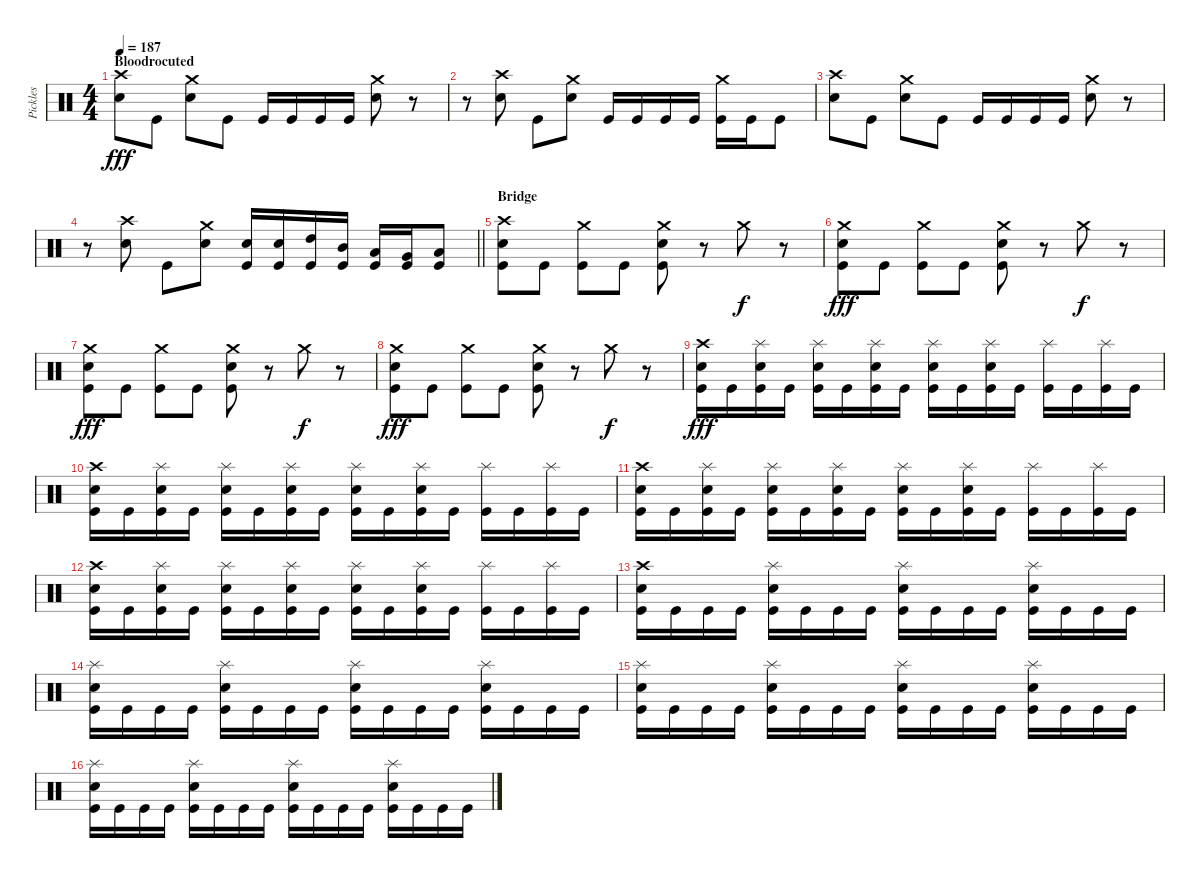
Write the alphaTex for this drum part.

\track ("Pickles" "Pickles") {instrument percussion}
\staff {score}
\articulation defaults
\ts (4 4)
\section ("" "Bloodrocuted")
\tempo 187
\clef neutral
\ks c
("Crash high (hit)" "Snare (hit) 2").8{dy fff} "Kick (hit)".8 ("Crash medium (hit)" "Snare (hit) 2").8 "Kick (hit)".8 "Kick (hit)".16 "Kick (hit)".16 "Kick (hit)".16 "Kick (hit)".16 ("Crash medium (hit)" "Snare (hit) 2").8 r.8 |
r.8 ("Crash high (hit)" "Snare (hit) 2").8 "Kick (hit)".8 ("Crash medium (hit)" "Snare (hit) 2").8 "Kick (hit)".16 "Kick (hit)".16 "Kick (hit)".16 "Kick (hit)".16 ("Crash medium (hit)" "Kick (hit)").16 "Kick (hit)".16 "Kick (hit)".8 |
("Crash high (hit)" "Snare (hit) 2").8 "Kick (hit)".8 ("Crash medium (hit)" "Snare (hit) 2").8 "Kick (hit)".8 "Kick (hit)".16 "Kick (hit)".16 "Kick (hit)".16 "Kick (hit)".16 ("Crash medium (hit)" "Snare (hit) 2").8 r.8 |
\barLineRight lightlight
r.8 ("Crash high (hit)" "Snare (hit) 2").8 "Kick (hit)".8 ("Crash medium (hit)" "Snare (hit) 2").8 ("Snare (hit) 2" "Kick (hit)").16 ("Snare (hit) 2" "Kick (hit)").16 ("High Tom (hit)" "Kick (hit)").16 ("Mid Tom (hit)" "Kick (hit)").16 ("Low Tom (hit)" "Kick (hit)").16 ("Very Low Tom (hit)" "Kick (hit)").16 ("Low Floor Tom (hit)" "Kick (hit)").8 |
\section ("" "Bridge")
("Crash high (hit)" "Snare (hit) 2" "Kick (hit)").8 "Kick (hit)".8 ("Crash medium (hit)" "Kick (hit)").8 "Kick (hit)".8 ("Crash medium (hit)" "Snare (hit) 2" "Kick (hit)").8 r.8 "Crash medium (hit)".8{dy f} r.8 |
("Crash medium (hit)" "Snare (hit) 2" "Kick (hit)").8{dy fff} "Kick (hit)".8 ("Crash medium (hit)" "Kick (hit)").8 "Kick (hit)".8 ("Crash medium (hit)" "Snare (hit) 2" "Kick (hit)").8 r.8 "Crash medium (hit)".8{dy f} r.8 |
("Crash medium (hit)" "Snare (hit) 2" "Kick (hit)").8{dy fff} "Kick (hit)".8 ("Crash medium (hit)" "Kick (hit)").8 "Kick (hit)".8 ("Crash medium (hit)" "Snare (hit) 2" "Kick (hit)").8 r.8 "Crash medium (hit)".8{dy f} r.8 |
("Crash medium (hit)" "Snare (hit) 2" "Kick (hit)").8{dy fff} "Kick (hit)".8 ("Crash medium (hit)" "Kick (hit)").8 "Kick (hit)".8 ("Crash medium (hit)" "Snare (hit) 2" "Kick (hit)").8 r.8 "Crash medium (hit)".8{dy f} r.8 |
("Crash high (hit)" "Snare (hit) 2" "Kick (hit)").16{dy fff} "Kick (hit)".16 ("Splash (hit)" "Snare (hit) 2" "Kick (hit)").16 "Kick (hit)".16 ("Splash (hit)" "Snare (hit) 2" "Kick (hit)").16 "Kick (hit)".16 ("Splash (hit)" "Snare (hit) 2" "Kick (hit)").16 "Kick (hit)".16 ("Splash (hit)" "Snare (hit) 2" "Kick (hit)").16 "Kick (hit)".16 ("Splash (hit)" "Snare (hit) 2" "Kick (hit)").16 "Kick (hit)".16 ("Splash (hit)" "Kick (hit)").16 "Kick (hit)".16 ("Splash (hit)" "Kick (hit)").16 "Kick (hit)".16 |
("Crash high (hit)" "Snare (hit) 2" "Kick (hit)").16 "Kick (hit)".16 ("Splash (hit)" "Snare (hit) 2" "Kick (hit)").16 "Kick (hit)".16 ("Splash (hit)" "Snare (hit) 2" "Kick (hit)").16 "Kick (hit)".16 ("Splash (hit)" "Snare (hit) 2" "Kick (hit)").16 "Kick (hit)".16 ("Splash (hit)" "Snare (hit) 2" "Kick (hit)").16 "Kick (hit)".16 ("Splash (hit)" "Snare (hit) 2" "Kick (hit)").16 "Kick (hit)".16 ("Splash (hit)" "Kick (hit)").16 "Kick (hit)".16 ("Splash (hit)" "Kick (hit)").16 "Kick (hit)".16 |
("Crash high (hit)" "Snare (hit) 2" "Kick (hit)").16 "Kick (hit)".16 ("Splash (hit)" "Snare (hit) 2" "Kick (hit)").16 "Kick (hit)".16 ("Splash (hit)" "Snare (hit) 2" "Kick (hit)").16 "Kick (hit)".16 ("Splash (hit)" "Snare (hit) 2" "Kick (hit)").16 "Kick (hit)".16 ("Splash (hit)" "Snare (hit) 2" "Kick (hit)").16 "Kick (hit)".16 ("Splash (hit)" "Snare (hit) 2" "Kick (hit)").16 "Kick (hit)".16 ("Splash (hit)" "Kick (hit)").16 "Kick (hit)".16 ("Splash (hit)" "Kick (hit)").16 "Kick (hit)".16 |
("Crash high (hit)" "Snare (hit) 2" "Kick (hit)").16 "Kick (hit)".16 ("Splash (hit)" "Snare (hit) 2" "Kick (hit)").16 "Kick (hit)".16 ("Splash (hit)" "Snare (hit) 2" "Kick (hit)").16 "Kick (hit)".16 ("Splash (hit)" "Snare (hit) 2" "Kick (hit)").16 "Kick (hit)".16 ("Splash (hit)" "Snare (hit) 2" "Kick (hit)").16 "Kick (hit)".16 ("Splash (hit)" "Snare (hit) 2" "Kick (hit)").16 "Kick (hit)".16 ("Splash (hit)" "Kick (hit)").16 "Kick (hit)".16 ("Splash (hit)" "Kick (hit)").16 "Kick (hit)".16 |
("Crash high (hit)" "Snare (hit) 2" "Kick (hit)").16 "Kick (hit)".16 "Kick (hit)".16 "Kick (hit)".16 ("Splash (hit)" "Snare (hit) 2" "Kick (hit)").16 "Kick (hit)".16 "Kick (hit)".16 "Kick (hit)".16 ("Splash (hit)" "Snare (hit) 2" "Kick (hit)").16 "Kick (hit)".16 "Kick (hit)".16 "Kick (hit)".16 ("Splash (hit)" "Snare (hit) 2" "Kick (hit)").16 "Kick (hit)".16 "Kick (hit)".16 "Kick (hit)".16 |
("Splash (hit)" "Snare (hit) 2" "Kick (hit)").16 "Kick (hit)".16 "Kick (hit)".16 "Kick (hit)".16 ("Splash (hit)" "Snare (hit) 2" "Kick (hit)").16 "Kick (hit)".16 "Kick (hit)".16 "Kick (hit)".16 ("Splash (hit)" "Snare (hit) 2" "Kick (hit)").16 "Kick (hit)".16 "Kick (hit)".16 "Kick (hit)".16 ("Splash (hit)" "Snare (hit) 2" "Kick (hit)").16 "Kick (hit)".16 "Kick (hit)".16 "Kick (hit)".16 |
("Splash (hit)" "Snare (hit) 2" "Kick (hit)").16 "Kick (hit)".16 "Kick (hit)".16 "Kick (hit)".16 ("Splash (hit)" "Snare (hit) 2" "Kick (hit)").16 "Kick (hit)".16 "Kick (hit)".16 "Kick (hit)".16 ("Splash (hit)" "Snare (hit) 2" "Kick (hit)").16 "Kick (hit)".16 "Kick (hit)".16 "Kick (hit)".16 ("Splash (hit)" "Snare (hit) 2" "Kick (hit)").16 "Kick (hit)".16 "Kick (hit)".16 "Kick (hit)".16 |
("Splash (hit)" "Snare (hit) 2" "Kick (hit)").16 "Kick (hit)".16 "Kick (hit)".16 "Kick (hit)".16 ("Splash (hit)" "Snare (hit) 2" "Kick (hit)").16 "Kick (hit)".16 "Kick (hit)".16 "Kick (hit)".16 ("Splash (hit)" "Snare (hit) 2" "Kick (hit)").16 "Kick (hit)".16 "Kick (hit)".16 "Kick (hit)".16 ("Splash (hit)" "Snare (hit) 2" "Kick (hit)").16 "Kick (hit)".16 "Kick (hit)".16 "Kick (hit)".16
